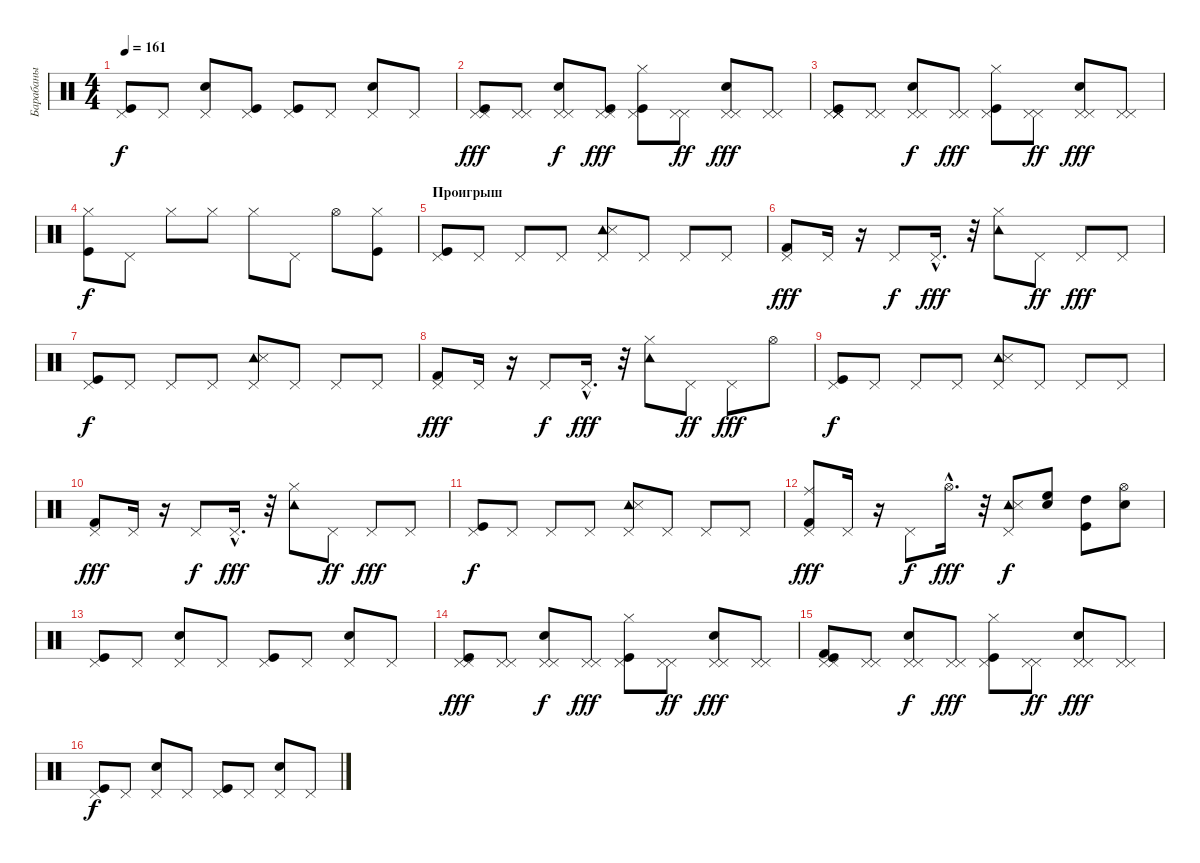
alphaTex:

\track ("Барабаны" "Барабаны") {instrument percussion}
\staff {score}
\articulation defaults
\ts (4 4)
\tempo 161
\clef neutral
\ks c
("Kick (hit)" "Pedal Hi-Hat (hit)").8{dy f} "Pedal Hi-Hat (hit)".8 ("Snare (hit) 2" "Pedal Hi-Hat (hit)").8 ("Kick (hit)" "Pedal Hi-Hat (hit)").8 ("Kick (hit)" "Pedal Hi-Hat (hit)").8 "Pedal Hi-Hat (hit)".8 ("Snare (hit) 2" "Pedal Hi-Hat (hit)").8 "Pedal Hi-Hat (hit)".8 |
("Pedal Hi-Hat (hit)" "Kick (hit)" "Pedal Hi-Hat (hit)").8{dy fff} ("Pedal Hi-Hat (hit)" "Pedal Hi-Hat (hit)").8 ("Snare (hit) 2" "Pedal Hi-Hat (hit)" "Pedal Hi-Hat (hit)").8{dy f} ("Kick (hit)" "Pedal Hi-Hat (hit)" "Pedal Hi-Hat (hit)").8{dy fff} ("Kick (hit)" "Hi-Hat (closed)" "Pedal Hi-Hat (hit)").8 ("Pedal Hi-Hat (hit)" "Pedal Hi-Hat (hit)").8{dy ff} ("Snare (hit) 2" "Pedal Hi-Hat (hit)" "Pedal Hi-Hat (hit)").8{dy fff} ("Pedal Hi-Hat (hit)" "Pedal Hi-Hat (hit)").8 |
("Pedal Hi-Hat (hit)" "Pedal Hi-Hat (hit)" "Pedal Hi-Hat (hit)" "Kick (hit)" "Pedal Hi-Hat (hit)").8 ("Pedal Hi-Hat (hit)" "Pedal Hi-Hat (hit)").8 ("Snare (hit) 2" "Pedal Hi-Hat (hit)" "Pedal Hi-Hat (hit)").8{dy f} ("Pedal Hi-Hat (hit)" "Pedal Hi-Hat (hit)").8{dy fff} ("Kick (hit)" "Pedal Hi-Hat (hit)" "Hi-Hat (closed)").8 ("Pedal Hi-Hat (hit)" "Pedal Hi-Hat (hit)").8{dy ff} ("Snare (hit) 2" "Pedal Hi-Hat (hit)" "Pedal Hi-Hat (hit)").8{dy fff} ("Pedal Hi-Hat (hit)" "Pedal Hi-Hat (hit)").8 |
("Kick (hit)" "Hi-Hat (closed)").8{dy f} "Pedal Hi-Hat (hit)".8 "Hi-Hat (closed)".8 "Hi-Hat (closed)".8 "Hi-Hat (closed)".8 "Pedal Hi-Hat (hit)".8 "Hi-Hat (open)".8 ("Kick (hit)" "Hi-Hat (closed)").8 |
\section ("" "Проигрыш")
("Kick (hit)" "Pedal Hi-Hat (hit)").8 "Pedal Hi-Hat (hit)".8 "Pedal Hi-Hat (hit)".8 "Pedal Hi-Hat (hit)".8 ("Tambourine (hit)" "Snare (side stick) 3" "Pedal Hi-Hat (hit)").8 "Pedal Hi-Hat (hit)".8 "Pedal Hi-Hat (hit)".8 "Pedal Hi-Hat (hit)".8 |
("Kick (hit) 2" "Pedal Hi-Hat (hit)").8{dy fff} "Pedal Hi-Hat (hit)".16 r.16 "Pedal Hi-Hat (hit)".8{dy f} "Pedal Hi-Hat (hit)"{hac}.16{d dy fff} r.32 ("Tambourine (hit)" "Hi-Hat (closed)").8 "Pedal Hi-Hat (hit)".8{dy ff} "Pedal Hi-Hat (hit)".8{dy fff} "Pedal Hi-Hat (hit)".8 |
("Pedal Hi-Hat (hit)" "Kick (hit)").8{dy f} "Pedal Hi-Hat (hit)".8 "Pedal Hi-Hat (hit)".8 "Pedal Hi-Hat (hit)".8 ("Tambourine (hit)" "Snare (side stick) 3" "Pedal Hi-Hat (hit)").8 "Pedal Hi-Hat (hit)".8 "Pedal Hi-Hat (hit)".8 "Pedal Hi-Hat (hit)".8 |
("Kick (hit) 2" "Pedal Hi-Hat (hit)").8{dy fff} "Pedal Hi-Hat (hit)".16 r.16 "Pedal Hi-Hat (hit)".8{dy f} "Pedal Hi-Hat (hit)"{hac}.16{d dy fff} r.32 ("Tambourine (hit)" "Hi-Hat (closed)").8 "Pedal Hi-Hat (hit)".8{dy ff} "Pedal Hi-Hat (hit)".8{dy fff} "Hi-Hat (open)".8 |
("Pedal Hi-Hat (hit)" "Kick (hit)").8{dy f} "Pedal Hi-Hat (hit)".8 "Pedal Hi-Hat (hit)".8 "Pedal Hi-Hat (hit)".8 ("Tambourine (hit)" "Snare (side stick) 3" "Pedal Hi-Hat (hit)").8 "Pedal Hi-Hat (hit)".8 "Pedal Hi-Hat (hit)".8 "Pedal Hi-Hat (hit)".8 |
("Kick (hit) 2" "Pedal Hi-Hat (hit)").8{dy fff} "Pedal Hi-Hat (hit)".16 r.16 "Pedal Hi-Hat (hit)".8{dy f} "Pedal Hi-Hat (hit)"{hac}.16{d dy fff} r.32 ("Tambourine (hit)" "Hi-Hat (closed)").8 "Pedal Hi-Hat (hit)".8{dy ff} "Pedal Hi-Hat (hit)".8{dy fff} "Pedal Hi-Hat (hit)".8 |
("Kick (hit)" "Pedal Hi-Hat (hit)").8{dy f} "Pedal Hi-Hat (hit)".8 "Pedal Hi-Hat (hit)".8 "Pedal Hi-Hat (hit)".8 ("Tambourine (hit)" "Snare (side stick) 3" "Pedal Hi-Hat (hit)").8 "Pedal Hi-Hat (hit)".8 "Pedal Hi-Hat (hit)".8 "Pedal Hi-Hat (hit)".8 |
("Ride (middle)" "Kick (hit) 2" "Pedal Hi-Hat (hit)").8{dy fff} "Pedal Hi-Hat (hit)".16 r.16 "Pedal Hi-Hat (hit)".8{dy f} "Hi-Hat (open)"{hac}.16{d dy fff} r.32 ("Tambourine (hit)" "Snare (side stick) 3" "Pedal Hi-Hat (hit)").8{dy f} ("Snare (hit) 2" "High Floor Tom (hit)").8 ("Kick (hit)" "High Tom (hit)").8 ("Snare (hit) 2" "Hi-Hat (open)").8 |
("Kick (hit)" "Pedal Hi-Hat (hit)").8 "Pedal Hi-Hat (hit)".8 ("Snare (hit) 2" "Pedal Hi-Hat (hit)").8 "Pedal Hi-Hat (hit)".8 ("Kick (hit)" "Pedal Hi-Hat (hit)").8 "Pedal Hi-Hat (hit)".8 ("Snare (hit) 2" "Pedal Hi-Hat (hit)").8 "Pedal Hi-Hat (hit)".8 |
("Pedal Hi-Hat (hit)" "Kick (hit)" "Pedal Hi-Hat (hit)").8{dy fff} ("Pedal Hi-Hat (hit)" "Pedal Hi-Hat (hit)").8 ("Snare (hit) 2" "Pedal Hi-Hat (hit)" "Pedal Hi-Hat (hit)").8{dy f} ("Pedal Hi-Hat (hit)" "Pedal Hi-Hat (hit)").8{dy fff} ("Kick (hit)" "Hi-Hat (closed)" "Pedal Hi-Hat (hit)").8 ("Pedal Hi-Hat (hit)" "Pedal Hi-Hat (hit)").8{dy ff} ("Snare (hit) 2" "Pedal Hi-Hat (hit)" "Pedal Hi-Hat (hit)").8{dy fff} ("Pedal Hi-Hat (hit)" "Pedal Hi-Hat (hit)").8 |
("Pedal Hi-Hat (hit)" "Pedal Hi-Hat (hit)" "Kick (hit)" "Kick (hit) 2").8 ("Pedal Hi-Hat (hit)" "Pedal Hi-Hat (hit)").8 ("Snare (hit) 2" "Pedal Hi-Hat (hit)" "Pedal Hi-Hat (hit)").8{dy f} ("Pedal Hi-Hat (hit)" "Pedal Hi-Hat (hit)").8{dy fff} ("Kick (hit)" "Pedal Hi-Hat (hit)" "Hi-Hat (closed)").8 ("Pedal Hi-Hat (hit)" "Pedal Hi-Hat (hit)").8{dy ff} ("Snare (hit) 2" "Pedal Hi-Hat (hit)" "Pedal Hi-Hat (hit)").8{dy fff} ("Pedal Hi-Hat (hit)" "Pedal Hi-Hat (hit)").8 |
("Kick (hit)" "Pedal Hi-Hat (hit)").8{dy f} "Pedal Hi-Hat (hit)".8 ("Snare (hit) 2" "Pedal Hi-Hat (hit)").8 "Pedal Hi-Hat (hit)".8 ("Kick (hit)" "Pedal Hi-Hat (hit)").8 "Pedal Hi-Hat (hit)".8 ("Snare (hit) 2" "Pedal Hi-Hat (hit)").8 "Pedal Hi-Hat (hit)".8
